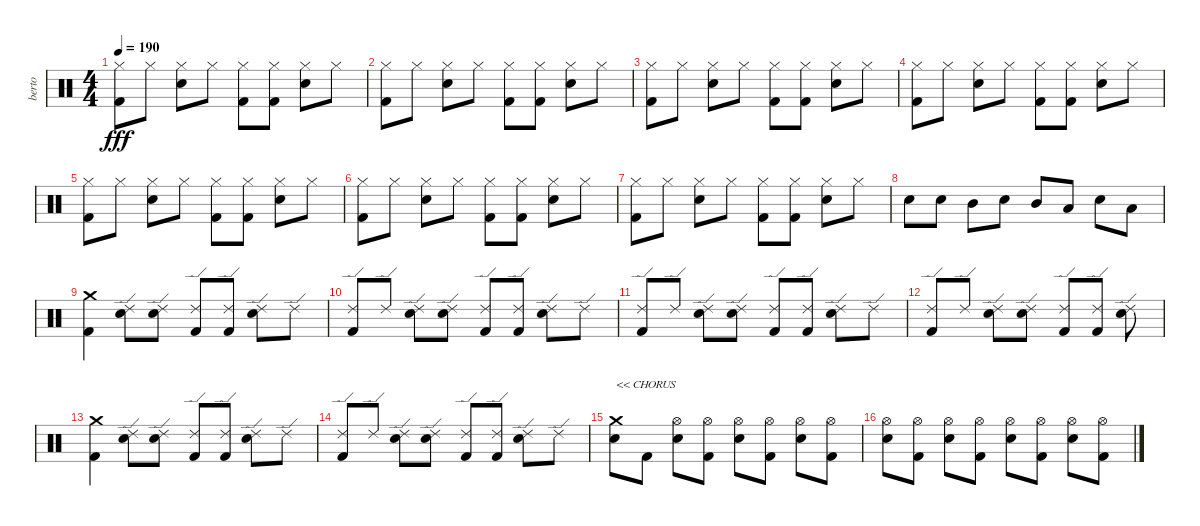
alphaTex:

\track ("berto" "berto") {instrument percussion}
\staff {score}
\articulation defaults
\ts (4 4)
\tempo 190
\clef neutral
\ks c
("Hi-Hat (closed)" "Kick (hit) 2").8{dy fff} "Hi-Hat (closed)".8 ("Hi-Hat (closed)" "Snare (hit) 2").8 "Hi-Hat (closed)".8 ("Hi-Hat (closed)" "Kick (hit) 2").8 ("Hi-Hat (closed)" "Kick (hit) 2").8 ("Hi-Hat (closed)" "Snare (hit) 2").8 "Hi-Hat (closed)".8 |
("Hi-Hat (closed)" "Kick (hit) 2").8 "Hi-Hat (closed)".8 ("Hi-Hat (closed)" "Snare (hit) 2").8 "Hi-Hat (closed)".8 ("Hi-Hat (closed)" "Kick (hit) 2").8 ("Hi-Hat (closed)" "Kick (hit) 2").8 ("Hi-Hat (closed)" "Snare (hit) 2").8 "Hi-Hat (closed)".8 |
("Hi-Hat (closed)" "Kick (hit) 2").8 "Hi-Hat (closed)".8 ("Hi-Hat (closed)" "Snare (hit) 2").8 "Hi-Hat (closed)".8 ("Hi-Hat (closed)" "Kick (hit) 2").8 ("Hi-Hat (closed)" "Kick (hit) 2").8 ("Hi-Hat (closed)" "Snare (hit) 2").8 "Hi-Hat (closed)".8 |
("Hi-Hat (closed)" "Kick (hit) 2").8 "Hi-Hat (closed)".8 ("Hi-Hat (closed)" "Snare (hit) 2").8 "Hi-Hat (closed)".8 ("Hi-Hat (closed)" "Kick (hit) 2").8 ("Hi-Hat (closed)" "Kick (hit) 2").8 ("Hi-Hat (closed)" "Snare (hit) 2").8 "Hi-Hat (closed)".8 |
("Hi-Hat (closed)" "Kick (hit) 2").8 "Hi-Hat (closed)".8 ("Hi-Hat (closed)" "Snare (hit) 2").8 "Hi-Hat (closed)".8 ("Hi-Hat (closed)" "Kick (hit) 2").8 ("Hi-Hat (closed)" "Kick (hit) 2").8 ("Hi-Hat (closed)" "Snare (hit) 2").8 "Hi-Hat (closed)".8 |
("Hi-Hat (closed)" "Kick (hit) 2").8 "Hi-Hat (closed)".8 ("Hi-Hat (closed)" "Snare (hit) 2").8 "Hi-Hat (closed)".8 ("Hi-Hat (closed)" "Kick (hit) 2").8 ("Hi-Hat (closed)" "Kick (hit) 2").8 ("Hi-Hat (closed)" "Snare (hit) 2").8 "Hi-Hat (closed)".8 |
("Hi-Hat (closed)" "Kick (hit) 2").8 "Hi-Hat (closed)".8 ("Hi-Hat (closed)" "Snare (hit) 2").8 "Hi-Hat (closed)".8 ("Hi-Hat (closed)" "Kick (hit) 2").8 ("Hi-Hat (closed)" "Kick (hit) 2").8 ("Hi-Hat (closed)" "Snare (hit) 2").8 "Hi-Hat (closed)".8 |
"Snare (hit) 2".8 "Snare (hit) 2".8 "Mid Tom (hit)".8 "Snare (hit) 2".8 "Mid Tom (hit)".8 "Low Tom (hit)".8 "Snare (hit) 2".8 "Low Floor Tom (hit)".8 |
("Crash medium (hit)" "Kick (hit) 2").4 ("Ride (edge) 2" "Snare (hit) 2").8 ("Ride (edge) 2" "Snare (hit) 2").8 ("Ride (edge) 2" "Kick (hit) 2").8 ("Ride (edge) 2" "Kick (hit) 2").8 ("Ride (edge) 2" "Snare (hit) 2").8 "Ride (edge) 2".8 |
("Ride (edge) 2" "Kick (hit) 2").8 "Ride (edge) 2".8 ("Ride (edge) 2" "Snare (hit) 2").8 ("Ride (edge) 2" "Snare (hit) 2").8 ("Ride (edge) 2" "Kick (hit) 2").8 ("Ride (edge) 2" "Kick (hit) 2").8 ("Ride (edge) 2" "Snare (hit) 2").8 "Ride (edge) 2".8 |
("Ride (edge) 2" "Kick (hit) 2").8 "Ride (edge) 2".8 ("Ride (edge) 2" "Snare (hit) 2").8 ("Ride (edge) 2" "Snare (hit) 2").8 ("Ride (edge) 2" "Kick (hit) 2").8 ("Ride (edge) 2" "Kick (hit) 2").8 ("Ride (edge) 2" "Snare (hit) 2").8 "Ride (edge) 2".8 |
("Ride (edge) 2" "Kick (hit) 2").8 "Ride (edge) 2".8 ("Ride (edge) 2" "Snare (hit) 2").8 ("Ride (edge) 2" "Snare (hit) 2").8 ("Ride (edge) 2" "Kick (hit) 2").8 ("Ride (edge) 2" "Kick (hit) 2").8 ("Ride (edge) 2" "Snare (hit) 2").8 |
("Crash medium (hit)" "Kick (hit) 2").4 ("Ride (edge) 2" "Snare (hit) 2").8 ("Ride (edge) 2" "Snare (hit) 2").8 ("Ride (edge) 2" "Kick (hit) 2").8 ("Ride (edge) 2" "Kick (hit) 2").8 ("Ride (edge) 2" "Snare (hit) 2").8 "Ride (edge) 2".8 |
("Ride (edge) 2" "Kick (hit) 2").8 "Ride (edge) 2".8 ("Ride (edge) 2" "Snare (hit) 2").8 ("Ride (edge) 2" "Snare (hit) 2").8 ("Ride (edge) 2" "Kick (hit) 2").8 ("Ride (edge) 2" "Kick (hit) 2").8 ("Ride (edge) 2" "Snare (hit) 2").8 "Ride (edge) 2".8 |
("Crash medium (hit)" "Snare (hit) 2").8{txt "<< CHORUS"} "Kick (hit) 2".8 ("Hi-Hat (open)" "Snare (hit) 2").8 ("Hi-Hat (open)" "Kick (hit) 2").8 ("Hi-Hat (open)" "Snare (hit) 2").8 ("Hi-Hat (open)" "Kick (hit) 2").8 ("Hi-Hat (open)" "Snare (hit) 2").8 ("Hi-Hat (open)" "Kick (hit) 2").8 |
("Hi-Hat (open)" "Snare (hit) 2").8 ("Hi-Hat (open)" "Kick (hit) 2").8 ("Hi-Hat (open)" "Snare (hit) 2").8 ("Hi-Hat (open)" "Kick (hit) 2").8 ("Hi-Hat (open)" "Snare (hit) 2").8 ("Hi-Hat (open)" "Kick (hit) 2").8 ("Hi-Hat (open)" "Snare (hit) 2").8 ("Hi-Hat (open)" "Kick (hit) 2").8
